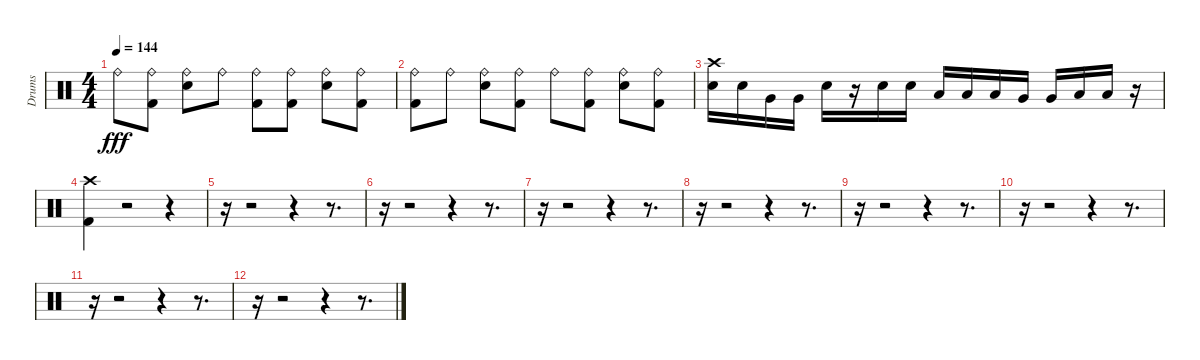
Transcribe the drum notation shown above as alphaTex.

\track ("Drums" "Drums") {instrument percussion}
\staff {score}
\articulation defaults
\ts (4 4)
\tempo 144
\clef neutral
\ks c "Ride (bell)".8{dy fff}
("Ride (bell)" "Kick (hit) 2").8 ("Ride (bell)" "Snare (hit) 2").8 "Ride (bell)".8 ("Ride (bell)" "Kick (hit) 2").8 ("Ride (bell)" "Kick (hit) 2").8 ("Ride (bell)" "Snare (hit) 2").8 ("Ride (bell)" "Kick (hit) 2").8 |
("Kick (hit) 2" "Ride (bell)").8 "Ride (bell)".8 ("Snare (hit) 2" "Ride (bell)").8 ("Kick (hit) 2" "Ride (bell)").8 "Ride (bell)".8 ("Kick (hit) 2" "Ride (bell)").8 ("Snare (hit) 2" "Ride (bell)").8 ("Kick (hit) 2" "Ride (bell)").8 |
("Snare (hit) 2" "Crash high (hit)").16 "Snare (hit) 2".16 "Very Low Tom (hit)".16 "Very Low Tom (hit)".16 "Snare (hit) 2".16 r.16 "Snare (hit) 2".16 "Snare (hit) 2".16 "Low Tom (hit)".16 "Low Tom (hit)".16 "Low Tom (hit)".16 "Very Low Tom (hit)".16 "Very Low Tom (hit)".16 "Low Floor Tom (hit)".16 "Low Floor Tom (hit)".16 r.16 |
("Kick (hit) 2" "Crash high (hit)").4 r.2 r.4 |
r.16 r.2 r.4 r.8{d} |
r.16 r.2 r.4 r.8{d} |
r.16 r.2 r.4 r.8{d} |
r.16 r.2 r.4 r.8{d} |
r.16 r.2 r.4 r.8{d} |
r.16 r.2 r.4 r.8{d} |
r.16 r.2 r.4 r.8{d} |
r.16 r.2 r.4 r.8{d}
